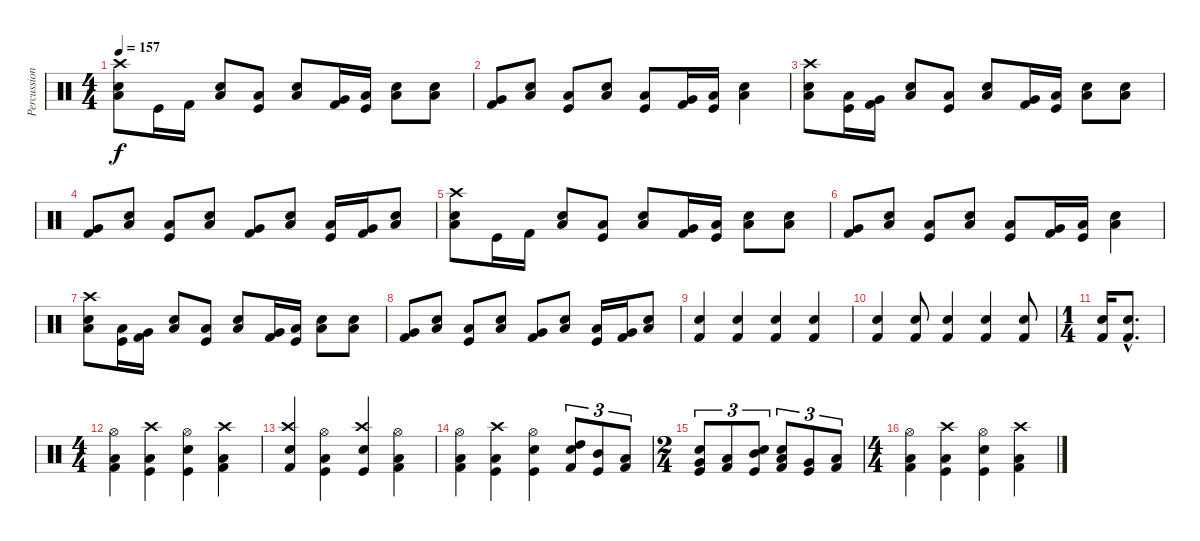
\track ("Percussions" "Percussion") {instrument percussion}
\staff {score}
\articulation defaults
\ts (4 4)
\tempo 157
\clef neutral
\ks c
("Electric Snare (hit)" "Low Floor Tom (hit)" "Crash high (hit)").8{dy f} "Kick (hit)".16 "Kick (hit) 2".16 ("Electric Snare (hit)" "Low Floor Tom (hit)").8 ("Kick (hit)" "Low Tom (hit)").8 ("Electric Snare (hit)" "Low Floor Tom (hit)").8 ("Kick (hit) 2" "Very Low Tom (hit)").16 ("Kick (hit)" "Low Tom (hit)").16 ("Electric Snare (hit)" "Low Floor Tom (hit)").8 ("Electric Snare (hit)" "Low Floor Tom (hit)").8 |
("Kick (hit) 2" "Very Low Tom (hit)").8 ("Electric Snare (hit)" "Low Floor Tom (hit)").8 ("Kick (hit)" "Low Tom (hit)").8 ("Electric Snare (hit)" "Low Floor Tom (hit)").8 ("Kick (hit)" "Low Tom (hit)").8 ("Kick (hit) 2" "Very Low Tom (hit)").16 ("Kick (hit)" "Low Tom (hit)").16 ("Low Floor Tom (hit)" "Electric Snare (hit)").4 |
("Electric Snare (hit)" "Low Floor Tom (hit)" "Crash high (hit)").8 ("Kick (hit)" "Low Tom (hit)").16 ("Kick (hit) 2" "Very Low Tom (hit)").16 ("Electric Snare (hit)" "Low Floor Tom (hit)").8 ("Kick (hit)" "Low Tom (hit)").8 ("Electric Snare (hit)" "Low Floor Tom (hit)").8 ("Kick (hit) 2" "Very Low Tom (hit)").16 ("Kick (hit)" "Low Tom (hit)").16 ("Electric Snare (hit)" "Low Floor Tom (hit)").8 ("Electric Snare (hit)" "Low Floor Tom (hit)").8 |
("Kick (hit) 2" "Very Low Tom (hit)").8 ("Electric Snare (hit)" "Low Floor Tom (hit)").8 ("Kick (hit)" "Low Tom (hit)").8 ("Electric Snare (hit)" "Low Floor Tom (hit)").8 ("Kick (hit) 2" "Very Low Tom (hit)").8 ("Electric Snare (hit)" "Low Floor Tom (hit)").8 ("Kick (hit)" "Low Tom (hit)").16 ("Kick (hit) 2" "Very Low Tom (hit)").16 ("Electric Snare (hit)" "Low Floor Tom (hit)").8 |
("Electric Snare (hit)" "Low Floor Tom (hit)" "Crash high (hit)").8 "Kick (hit)".16 "Kick (hit) 2".16 ("Electric Snare (hit)" "Low Floor Tom (hit)").8 ("Kick (hit)" "Low Tom (hit)").8 ("Electric Snare (hit)" "Low Floor Tom (hit)").8 ("Kick (hit) 2" "Very Low Tom (hit)").16 ("Kick (hit)" "Low Tom (hit)").16 ("Electric Snare (hit)" "Low Floor Tom (hit)").8 ("Electric Snare (hit)" "Low Floor Tom (hit)").8 |
("Kick (hit) 2" "Very Low Tom (hit)").8 ("Electric Snare (hit)" "Low Floor Tom (hit)").8 ("Kick (hit)" "Low Tom (hit)").8 ("Electric Snare (hit)" "Low Floor Tom (hit)").8 ("Kick (hit)" "Low Tom (hit)").8 ("Kick (hit) 2" "Very Low Tom (hit)").16 ("Kick (hit)" "Low Tom (hit)").16 ("Low Floor Tom (hit)" "Electric Snare (hit)").4 |
("Electric Snare (hit)" "Low Floor Tom (hit)" "Crash high (hit)").8 ("Kick (hit)" "Low Tom (hit)").16 ("Kick (hit) 2" "Very Low Tom (hit)").16 ("Electric Snare (hit)" "Low Floor Tom (hit)").8 ("Kick (hit)" "Low Tom (hit)").8 ("Electric Snare (hit)" "Low Floor Tom (hit)").8 ("Kick (hit) 2" "Very Low Tom (hit)").16 ("Kick (hit)" "Low Tom (hit)").16 ("Electric Snare (hit)" "Low Floor Tom (hit)").8 ("Electric Snare (hit)" "Low Floor Tom (hit)").8 |
("Kick (hit) 2" "Very Low Tom (hit)").8 ("Electric Snare (hit)" "Low Floor Tom (hit)").8 ("Kick (hit)" "Low Tom (hit)").8 ("Electric Snare (hit)" "Low Floor Tom (hit)").8 ("Kick (hit) 2" "Very Low Tom (hit)").8 ("Electric Snare (hit)" "Low Floor Tom (hit)").8 ("Kick (hit)" "Low Tom (hit)").16 ("Kick (hit) 2" "Very Low Tom (hit)").16 ("Electric Snare (hit)" "Low Floor Tom (hit)").8 |
("Electric Snare (hit)" "Kick (hit) 2").4 ("Electric Snare (hit)" "Kick (hit) 2").4 ("Electric Snare (hit)" "Kick (hit) 2").4 ("Electric Snare (hit)" "Kick (hit) 2").4 |
("Electric Snare (hit)" "Kick (hit) 2").4 ("Electric Snare (hit)" "Kick (hit) 2").8 ("Electric Snare (hit)" "Kick (hit) 2").4 ("Electric Snare (hit)" "Kick (hit) 2").4 ("Electric Snare (hit)" "Kick (hit) 2").8 |
\ts (1 4)
("Electric Snare (hit)" "Kick (hit) 2").16 ("Electric Snare (hit)"{hac} "Kick (hit) 2"{hac}).8{d} |
\ts (4 4)
("Kick (hit) 2" "Hi-Hat (open)" "Low Tom (hit)").4 ("Kick (hit)" "Crash high (hit)" "Low Tom (hit)").4 ("Kick (hit)" "Hi-Hat (open)" "Electric Snare (hit)").4 ("Kick (hit) 2" "Crash high (hit)" "Low Tom (hit)").4 |
("Kick (hit) 2" "Crash high (hit)" "Electric Snare (hit)").4 ("Kick (hit)" "Hi-Hat (open)" "Low Tom (hit)").4 ("Kick (hit)" "Crash high (hit)" "Electric Snare (hit)").4 ("Kick (hit) 2" "Hi-Hat (open)" "Low Tom (hit)").4 |
("Kick (hit) 2" "Hi-Hat (open)" "Low Tom (hit)").4 ("Kick (hit)" "Crash high (hit)" "Low Tom (hit)").4 ("Kick (hit)" "Hi-Hat (open)" "Electric Snare (hit)").4 ("High Tom (hit)" "Kick (hit) 2" "Electric Snare (hit)").8{tu (3 2)} ("Mid Tom (hit)" "Kick (hit)").8{tu (3 2)} ("Low Tom (hit)" "Kick (hit) 2").8{tu (3 2)} |
\ts (2 4)
("Very Low Tom (hit)" "Kick (hit)" "Electric Snare (hit)").8{tu (3 2)} ("Low Tom (hit)" "Kick (hit) 2").8{tu (3 2)} ("Mid Tom (hit)" "Kick (hit)" "Electric Snare (hit)").8{tu (3 2)} ("Low Tom (hit)" "Kick (hit) 2" "Electric Snare (hit)").8{tu (3 2)} ("Very Low Tom (hit)" "Kick (hit)").8{tu (3 2)} ("Low Floor Tom (hit)" "Kick (hit) 2").8{tu (3 2)} |
\ts (4 4)
("Kick (hit) 2" "Hi-Hat (open)" "Low Tom (hit)").4 ("Kick (hit)" "Crash high (hit)" "Low Tom (hit)").4 ("Kick (hit)" "Hi-Hat (open)" "Electric Snare (hit)").4 ("Kick (hit) 2" "Crash high (hit)" "Low Tom (hit)").4
